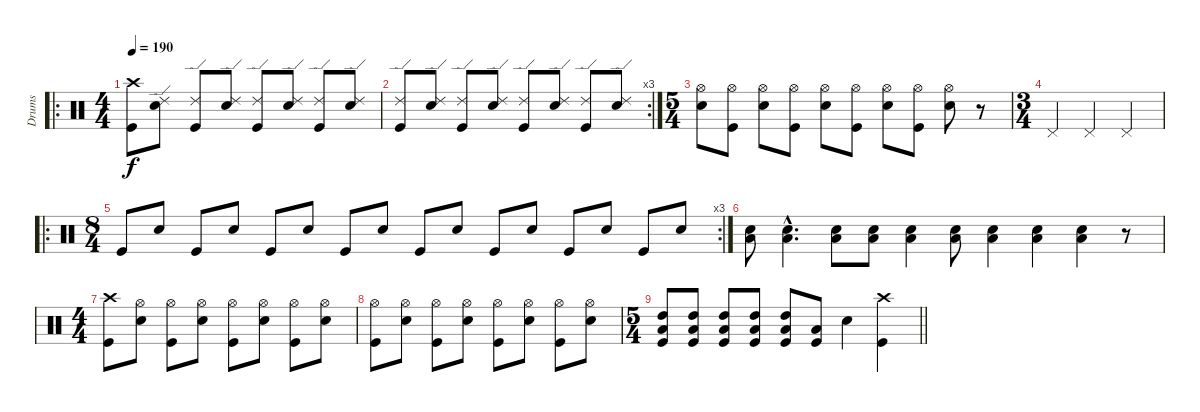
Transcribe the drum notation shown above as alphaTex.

\track ("Drums" "Drums") {instrument percussion}
\staff {score}
\articulation defaults
\ro
\ts (4 4)
\tempo 190
\clef neutral
\ks c
("Crash high (hit)" "Kick (hit)").8{dy f} ("Ride (edge) 2" "Electric Snare (hit)").8 ("Ride (edge) 2" "Kick (hit)").8 ("Ride (edge) 2" "Electric Snare (hit)").8 ("Ride (edge) 2" "Kick (hit)").8 ("Ride (edge) 2" "Electric Snare (hit)").8 ("Ride (edge) 2" "Kick (hit)").8 ("Ride (edge) 2" "Electric Snare (hit)").8 |
\rc 3
("Ride (edge) 2" "Kick (hit)").8 ("Ride (edge) 2" "Electric Snare (hit)").8 ("Ride (edge) 2" "Kick (hit)").8 ("Ride (edge) 2" "Electric Snare (hit)").8 ("Ride (edge) 2" "Kick (hit)").8 ("Ride (edge) 2" "Electric Snare (hit)").8 ("Ride (edge) 2" "Kick (hit)").8 ("Ride (edge) 2" "Electric Snare (hit)").8 |
\ts (5 4)
("Hi-Hat (open)" "Electric Snare (hit)").8 ("Hi-Hat (open)" "Kick (hit)").8 ("Hi-Hat (open)" "Electric Snare (hit)").8 ("Hi-Hat (open)" "Kick (hit)").8 ("Hi-Hat (open)" "Electric Snare (hit)").8 ("Hi-Hat (open)" "Kick (hit)").8 ("Hi-Hat (open)" "Electric Snare (hit)").8 ("Hi-Hat (open)" "Kick (hit)").8 ("Hi-Hat (open)" "Electric Snare (hit)").8 r.8 |
\ts (3 4)
"Pedal Hi-Hat (hit)".4 "Pedal Hi-Hat (hit)".4 "Pedal Hi-Hat (hit)".4 |
\ro
\rc 3
\ts (8 4)
"Kick (hit)".8 "Electric Snare (hit)".8 "Kick (hit)".8 "Electric Snare (hit)".8 "Kick (hit)".8 "Electric Snare (hit)".8 "Kick (hit)".8 "Electric Snare (hit)".8 "Kick (hit)".8 "Electric Snare (hit)".8 "Kick (hit)".8 "Electric Snare (hit)".8 "Kick (hit)".8 "Electric Snare (hit)".8 "Kick (hit)".8 "Electric Snare (hit)".8 |
("Electric Snare (hit)" "Low Tom (hit)").8 ("Electric Snare (hit)"{hac} "Low Tom (hit)"{hac}).4{d} ("Electric Snare (hit)" "Low Tom (hit)").8 ("Electric Snare (hit)" "Low Tom (hit)").8 ("Electric Snare (hit)" "Low Tom (hit)").4 ("Electric Snare (hit)" "Low Tom (hit)").8 ("Electric Snare (hit)" "Low Tom (hit)").4 ("Electric Snare (hit)" "Low Tom (hit)").4 ("Electric Snare (hit)" "Low Tom (hit)").4 r.8 |
\ts (4 4)
("Crash high (hit)" "Kick (hit)").8 ("Hi-Hat (open)" "Electric Snare (hit)").8 ("Hi-Hat (open)" "Kick (hit)").8 ("Hi-Hat (open)" "Electric Snare (hit)").8 ("Hi-Hat (open)" "Kick (hit)").8 ("Hi-Hat (open)" "Electric Snare (hit)").8 ("Hi-Hat (open)" "Kick (hit)").8 ("Hi-Hat (open)" "Electric Snare (hit)").8 |
("Hi-Hat (open)" "Kick (hit)").8 ("Hi-Hat (open)" "Electric Snare (hit)").8 ("Hi-Hat (open)" "Kick (hit)").8 ("Hi-Hat (open)" "Electric Snare (hit)").8 ("Hi-Hat (open)" "Kick (hit)").8 ("Hi-Hat (open)" "Electric Snare (hit)").8 ("Hi-Hat (open)" "Kick (hit)").8 ("Hi-Hat (open)" "Electric Snare (hit)").8 |
\ts (5 4)
\barLineRight lightlight
("Low Tom (hit)" "High Tom (hit)" "Kick (hit)").8 ("Low Tom (hit)" "High Tom (hit)" "Kick (hit)").8 ("Low Tom (hit)" "High Tom (hit)" "Kick (hit)").8 ("Low Tom (hit)" "High Tom (hit)" "Kick (hit)").8 ("Low Tom (hit)" "High Tom (hit)" "Kick (hit)").8 ("Low Tom (hit)" "Kick (hit)").8 "Electric Snare (hit)".4 ("Crash high (hit)" "Kick (hit)").4
